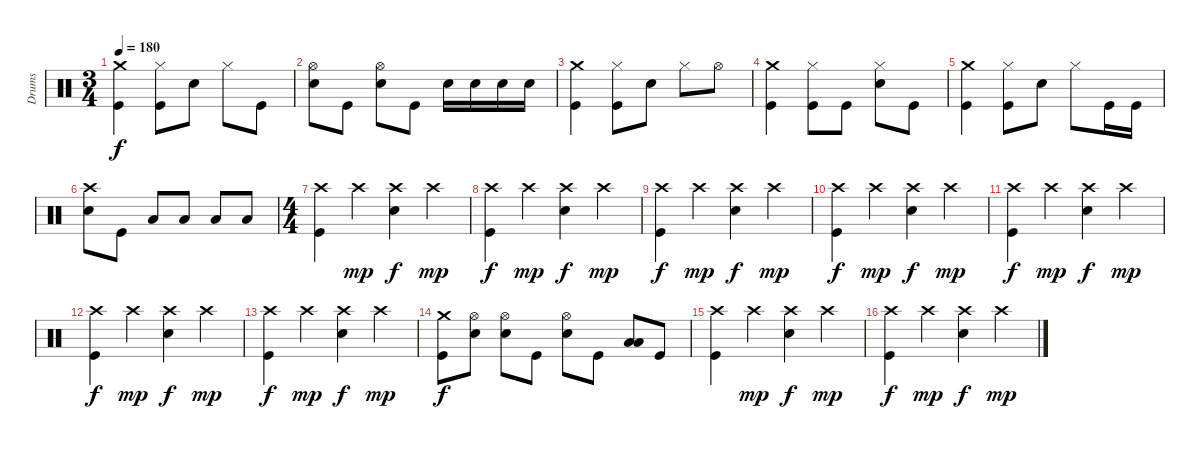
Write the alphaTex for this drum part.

\track ("Drums" "Drums") {instrument percussion}
\staff {score}
\articulation defaults
\ts (3 4)
\tempo 180
\clef neutral
\ks c
("Crash medium (hit)" "Kick (hit)").4{dy f} ("Hi-Hat (closed)" "Kick (hit)").8 "Electric Snare (hit)".8 "Hi-Hat (closed)".8 "Kick (hit)".8 |
("Hi-Hat (open)" "Electric Snare (hit)").8 "Kick (hit)".8 ("Hi-Hat (open)" "Electric Snare (hit)").8 "Kick (hit)".8 "Electric Snare (hit)".16 "Electric Snare (hit)".16 "Electric Snare (hit)".16 "Electric Snare (hit)".16 |
("Crash medium (hit)" "Kick (hit)").4 ("Hi-Hat (closed)" "Kick (hit)").8 "Electric Snare (hit)".8 "Hi-Hat (closed)".8 "Hi-Hat (open)".8 |
("Crash medium (hit)" "Kick (hit)").4 ("Hi-Hat (closed)" "Kick (hit)").8 "Kick (hit)".8 ("Hi-Hat (closed)" "Electric Snare (hit)").8 "Kick (hit)".8 |
("Crash medium (hit)" "Kick (hit)").4 ("Hi-Hat (closed)" "Kick (hit)").8 "Electric Snare (hit)".8 "Hi-Hat (closed)".8 "Kick (hit)".16 "Kick (hit)".16 |
("Crash high (hit)" "Electric Snare (hit)").8 "Kick (hit)".8 "Low Floor Tom (hit)".8 "Low Floor Tom (hit)".8 "Low Floor Tom (hit)".8 "Low Floor Tom (hit)".8 |
\ts (4 4)
("Crash high (hit)" "Kick (hit)").4 "Crash high (hit)".4{dy mp} ("Crash high (hit)" "Electric Snare (hit)").4{dy f} "Crash high (hit)".4{dy mp} |
("Crash high (hit)" "Kick (hit)").4{dy f} "Crash high (hit)".4{dy mp} ("Crash high (hit)" "Electric Snare (hit)").4{dy f} "Crash high (hit)".4{dy mp} |
("Crash high (hit)" "Kick (hit)").4{dy f} "Crash high (hit)".4{dy mp} ("Crash high (hit)" "Electric Snare (hit)").4{dy f} "Crash high (hit)".4{dy mp} |
("Crash high (hit)" "Kick (hit)").4{dy f} "Crash high (hit)".4{dy mp} ("Crash high (hit)" "Electric Snare (hit)").4{dy f} "Crash high (hit)".4{dy mp} |
("Crash high (hit)" "Kick (hit)").4{dy f} "Crash high (hit)".4{dy mp} ("Crash high (hit)" "Electric Snare (hit)").4{dy f} "Crash high (hit)".4{dy mp} |
("Crash high (hit)" "Kick (hit)").4{dy f} "Crash high (hit)".4{dy mp} ("Crash high (hit)" "Electric Snare (hit)").4{dy f} "Crash high (hit)".4{dy mp} |
("Crash high (hit)" "Kick (hit)").4{dy f} "Crash high (hit)".4{dy mp} ("Crash high (hit)" "Electric Snare (hit)").4{dy f} "Crash high (hit)".4{dy mp} |
("Crash medium (hit)" "Kick (hit)").8{dy f} ("Hi-Hat (open)" "Electric Snare (hit)").8 ("Hi-Hat (open)" "Electric Snare (hit)").8 "Kick (hit)".8 ("Hi-Hat (open)" "Electric Snare (hit)").8 "Kick (hit)".8 ("Low Tom (hit)" "Low Tom (hit)").8{bd 240} "Kick (hit)".8 |
("Crash high (hit)" "Kick (hit)").4 "Crash high (hit)".4{dy mp} ("Crash high (hit)" "Electric Snare (hit)").4{dy f} "Crash high (hit)".4{dy mp} |
("Crash high (hit)" "Kick (hit)").4{dy f} "Crash high (hit)".4{dy mp} ("Crash high (hit)" "Electric Snare (hit)").4{dy f} "Crash high (hit)".4{dy mp}
